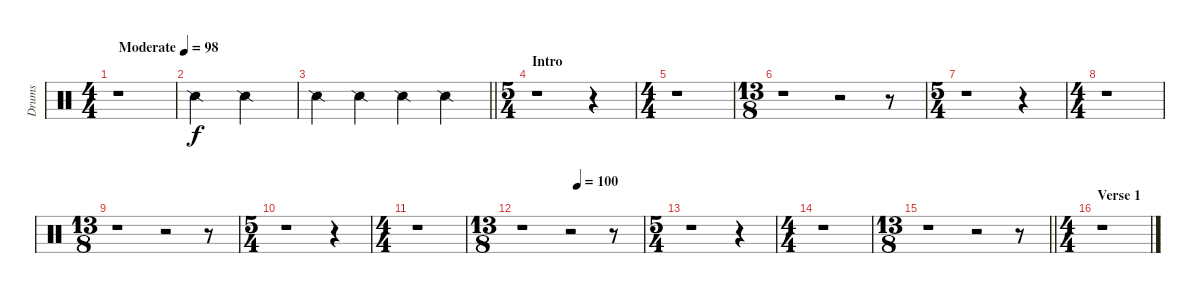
\track ("Drums" "Drums") {instrument percussion}
\staff {score}
\articulation defaults
\ts (4 4)
\tempo (98 "Moderate")
\clef neutral
\ks c
r.1{dy f} |
"Snare (side stick) 2".2 "Snare (side stick) 2".2 |
\barLineRight lightlight "Snare (side stick) 2".4 "Snare (side stick) 2".4 "Snare (side stick) 2".4 "Snare (side stick) 2".4
|
\ts (5 4)
\section ("" "Intro")
r.1 r.4 |
\ts (4 4)
r.1 |
\ts (13 8)
r.1 r.2 r.8 |
\ts (5 4)
r.1 r.4 |
\ts (4 4)
r.1 |
\ts (13 8)
r.1 r.2 r.8 |
\ts (5 4)
r.1 r.4 |
\ts (4 4)
r.1 |
\ts (13 8)
\tempo (100 0.46153846153846156)
r.1 r.2 r.8 |
\ts (5 4)
r.1 r.4 |
\ts (4 4)
r.1 |
\ts (13 8)
\barLineRight lightlight
r.1 r.2 r.8 |
\ts (4 4)
\section ("" "Verse 1")
r.1
